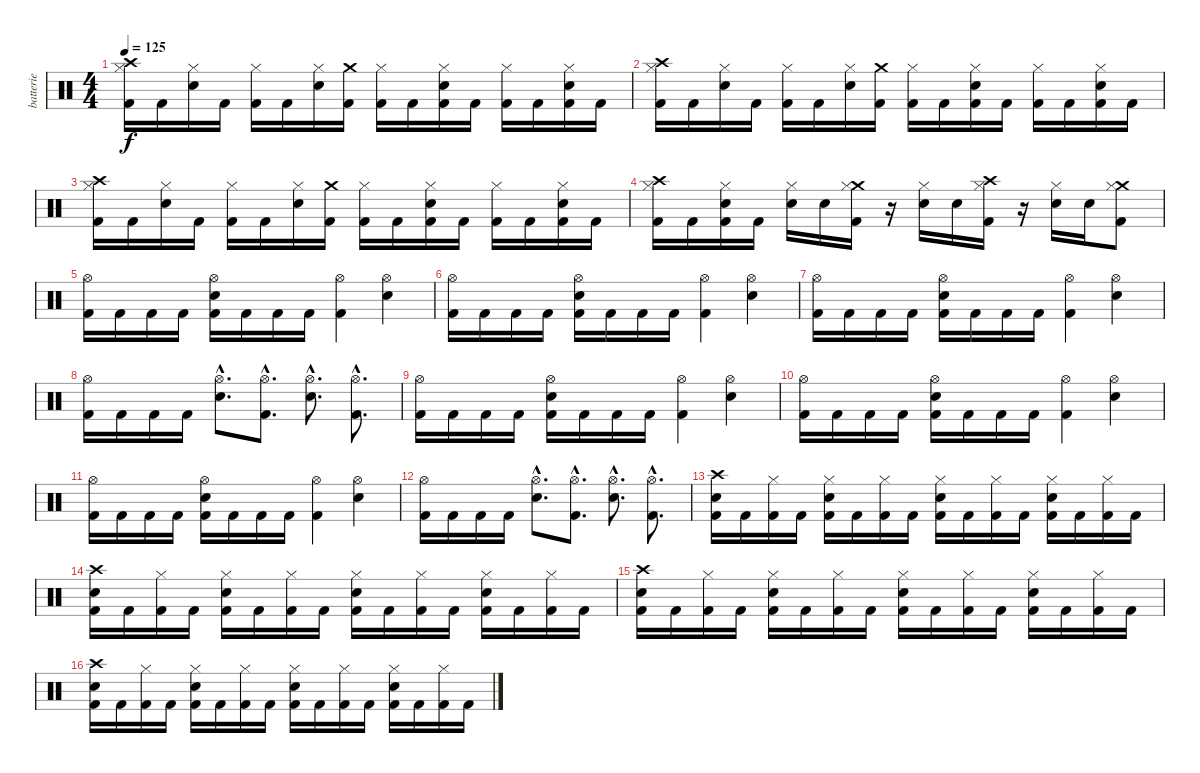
\track ("batterie" "batterie") {instrument percussion}
\staff {score}
\articulation defaults
\ts (4 4)
\tempo 125
\clef neutral
\ks c
("Crash high (hit)" "Kick (hit) 2" "Hi-Hat (closed)").16{dy f} "Kick (hit) 2".16 ("Electric Snare (hit)" "Hi-Hat (closed)").16 "Kick (hit) 2".16 ("Kick (hit) 2" "Hi-Hat (closed)").16 "Kick (hit) 2".16 ("Electric Snare (hit)" "Hi-Hat (closed)").16 ("Crash medium (hit)" "Kick (hit) 2").16 ("Kick (hit) 2" "Hi-Hat (closed)").16 "Kick (hit) 2".16 ("Electric Snare (hit)" "Kick (hit) 2" "Hi-Hat (closed)").16 "Kick (hit) 2".16 ("Kick (hit) 2" "Hi-Hat (closed)").16 "Kick (hit) 2".16 ("Electric Snare (hit)" "Kick (hit) 2" "Hi-Hat (closed)").16 "Kick (hit) 2".16 |
("Crash high (hit)" "Kick (hit) 2" "Hi-Hat (closed)").16 "Kick (hit) 2".16 ("Electric Snare (hit)" "Hi-Hat (closed)").16 "Kick (hit) 2".16 ("Kick (hit) 2" "Hi-Hat (closed)").16 "Kick (hit) 2".16 ("Electric Snare (hit)" "Hi-Hat (closed)").16 ("Crash medium (hit)" "Kick (hit) 2").16 ("Kick (hit) 2" "Hi-Hat (closed)").16 "Kick (hit) 2".16 ("Electric Snare (hit)" "Kick (hit) 2" "Hi-Hat (closed)").16 "Kick (hit) 2".16 ("Kick (hit) 2" "Hi-Hat (closed)").16 "Kick (hit) 2".16 ("Electric Snare (hit)" "Kick (hit) 2" "Hi-Hat (closed)").16 "Kick (hit) 2".16 |
("Crash high (hit)" "Kick (hit) 2" "Hi-Hat (closed)").16 "Kick (hit) 2".16 ("Electric Snare (hit)" "Hi-Hat (closed)").16 "Kick (hit) 2".16 ("Kick (hit) 2" "Hi-Hat (closed)").16 "Kick (hit) 2".16 ("Electric Snare (hit)" "Hi-Hat (closed)").16 ("Crash medium (hit)" "Kick (hit) 2").16 ("Kick (hit) 2" "Hi-Hat (closed)").16 "Kick (hit) 2".16 ("Electric Snare (hit)" "Kick (hit) 2" "Hi-Hat (closed)").16 "Kick (hit) 2".16 ("Kick (hit) 2" "Hi-Hat (closed)").16 "Kick (hit) 2".16 ("Electric Snare (hit)" "Kick (hit) 2" "Hi-Hat (closed)").16 "Kick (hit) 2".16 |
("Crash high (hit)" "Kick (hit) 2" "Hi-Hat (closed)").16 "Kick (hit) 2".16 ("Electric Snare (hit)" "Kick (hit) 2" "Hi-Hat (closed)").16 "Kick (hit) 2".16 ("Electric Snare (hit)" "Hi-Hat (closed)").16 "Electric Snare (hit)".16 ("Crash medium (hit)" "Kick (hit) 2" "Hi-Hat (closed)").16 r.16 ("Electric Snare (hit)" "Hi-Hat (closed)").16 "Electric Snare (hit)".16 ("Crash high (hit)" "Kick (hit) 2" "Hi-Hat (closed)").16 r.16 ("Electric Snare (hit)" "Hi-Hat (closed)").16 "Electric Snare (hit)".16 ("Crash medium (hit)" "Kick (hit) 2" "Hi-Hat (closed)").8 |
("Kick (hit) 2" "Hi-Hat (open)").16 "Kick (hit) 2".16 "Kick (hit) 2".16 "Kick (hit) 2".16 ("Electric Snare (hit)" "Kick (hit) 2" "Hi-Hat (open)").16 "Kick (hit) 2".16 "Kick (hit) 2".16 "Kick (hit) 2".16 ("Kick (hit) 2" "Hi-Hat (open)").4 ("Electric Snare (hit)" "Hi-Hat (open)").4 |
("Kick (hit) 2" "Hi-Hat (open)").16 "Kick (hit) 2".16 "Kick (hit) 2".16 "Kick (hit) 2".16 ("Electric Snare (hit)" "Kick (hit) 2" "Hi-Hat (open)").16 "Kick (hit) 2".16 "Kick (hit) 2".16 "Kick (hit) 2".16 ("Kick (hit) 2" "Hi-Hat (open)").4 ("Electric Snare (hit)" "Hi-Hat (open)").4 |
("Kick (hit) 2" "Hi-Hat (open)").16 "Kick (hit) 2".16 "Kick (hit) 2".16 "Kick (hit) 2".16 ("Electric Snare (hit)" "Kick (hit) 2" "Hi-Hat (open)").16 "Kick (hit) 2".16 "Kick (hit) 2".16 "Kick (hit) 2".16 ("Kick (hit) 2" "Hi-Hat (open)").4 ("Electric Snare (hit)" "Hi-Hat (open)").4 |
("Kick (hit) 2" "Hi-Hat (open)").16 "Kick (hit) 2".16 "Kick (hit) 2".16 "Kick (hit) 2".16 ("Electric Snare (hit)"{hac} "Hi-Hat (open)"{hac}).8{d} ("Kick (hit) 2"{hac} "Hi-Hat (open)"{hac}).8{d} ("Electric Snare (hit)"{hac} "Hi-Hat (open)"{hac}).8{d} ("Kick (hit) 2"{hac} "Hi-Hat (open)"{hac}).8{d} |
("Kick (hit) 2" "Hi-Hat (open)").16 "Kick (hit) 2".16 "Kick (hit) 2".16 "Kick (hit) 2".16 ("Electric Snare (hit)" "Kick (hit) 2" "Hi-Hat (open)").16 "Kick (hit) 2".16 "Kick (hit) 2".16 "Kick (hit) 2".16 ("Kick (hit) 2" "Hi-Hat (open)").4 ("Electric Snare (hit)" "Hi-Hat (open)").4 |
("Kick (hit) 2" "Hi-Hat (open)").16 "Kick (hit) 2".16 "Kick (hit) 2".16 "Kick (hit) 2".16 ("Electric Snare (hit)" "Kick (hit) 2" "Hi-Hat (open)").16 "Kick (hit) 2".16 "Kick (hit) 2".16 "Kick (hit) 2".16 ("Kick (hit) 2" "Hi-Hat (open)").4 ("Electric Snare (hit)" "Hi-Hat (open)").4 |
("Kick (hit) 2" "Hi-Hat (open)").16 "Kick (hit) 2".16 "Kick (hit) 2".16 "Kick (hit) 2".16 ("Electric Snare (hit)" "Kick (hit) 2" "Hi-Hat (open)").16 "Kick (hit) 2".16 "Kick (hit) 2".16 "Kick (hit) 2".16 ("Kick (hit) 2" "Hi-Hat (open)").4 ("Electric Snare (hit)" "Hi-Hat (open)").4 |
("Kick (hit) 2" "Hi-Hat (open)").16 "Kick (hit) 2".16 "Kick (hit) 2".16 "Kick (hit) 2".16 ("Electric Snare (hit)"{hac} "Hi-Hat (open)"{hac}).8{d} ("Kick (hit) 2"{hac} "Hi-Hat (open)"{hac}).8{d} ("Electric Snare (hit)"{hac} "Hi-Hat (open)"{hac}).8{d} ("Kick (hit) 2"{hac} "Hi-Hat (open)"{hac}).8{d} |
("Crash high (hit)" "Electric Snare (hit)" "Kick (hit) 2").16 "Kick (hit) 2".16 ("Kick (hit) 2" "Hi-Hat (closed)").16 "Kick (hit) 2".16 ("Electric Snare (hit)" "Kick (hit) 2" "Hi-Hat (closed)").16 "Kick (hit) 2".16 ("Kick (hit) 2" "Hi-Hat (closed)").16 "Kick (hit) 2".16 ("Electric Snare (hit)" "Kick (hit) 2" "Hi-Hat (closed)").16 "Kick (hit) 2".16 ("Kick (hit) 2" "Hi-Hat (closed)").16 "Kick (hit) 2".16 ("Electric Snare (hit)" "Kick (hit) 2" "Hi-Hat (closed)").16 "Kick (hit) 2".16 ("Kick (hit) 2" "Hi-Hat (closed)").16 "Kick (hit) 2".16 |
("Crash high (hit)" "Electric Snare (hit)" "Kick (hit) 2").16 "Kick (hit) 2".16 ("Kick (hit) 2" "Hi-Hat (closed)").16 "Kick (hit) 2".16 ("Electric Snare (hit)" "Kick (hit) 2" "Hi-Hat (closed)").16 "Kick (hit) 2".16 ("Kick (hit) 2" "Hi-Hat (closed)").16 "Kick (hit) 2".16 ("Electric Snare (hit)" "Kick (hit) 2" "Hi-Hat (closed)").16 "Kick (hit) 2".16 ("Kick (hit) 2" "Hi-Hat (closed)").16 "Kick (hit) 2".16 ("Electric Snare (hit)" "Kick (hit) 2" "Hi-Hat (closed)").16 "Kick (hit) 2".16 ("Kick (hit) 2" "Hi-Hat (closed)").16 "Kick (hit) 2".16 |
("Crash high (hit)" "Electric Snare (hit)" "Kick (hit) 2").16 "Kick (hit) 2".16 ("Kick (hit) 2" "Hi-Hat (closed)").16 "Kick (hit) 2".16 ("Electric Snare (hit)" "Kick (hit) 2" "Hi-Hat (closed)").16 "Kick (hit) 2".16 ("Kick (hit) 2" "Hi-Hat (closed)").16 "Kick (hit) 2".16 ("Electric Snare (hit)" "Kick (hit) 2" "Hi-Hat (closed)").16 "Kick (hit) 2".16 ("Kick (hit) 2" "Hi-Hat (closed)").16 "Kick (hit) 2".16 ("Electric Snare (hit)" "Kick (hit) 2" "Hi-Hat (closed)").16 "Kick (hit) 2".16 ("Kick (hit) 2" "Hi-Hat (closed)").16 "Kick (hit) 2".16 |
("Crash high (hit)" "Electric Snare (hit)" "Kick (hit) 2").16 "Kick (hit) 2".16 ("Kick (hit) 2" "Hi-Hat (closed)").16 "Kick (hit) 2".16 ("Electric Snare (hit)" "Kick (hit) 2" "Hi-Hat (closed)").16 "Kick (hit) 2".16 ("Kick (hit) 2" "Hi-Hat (closed)").16 "Kick (hit) 2".16 ("Electric Snare (hit)" "Kick (hit) 2" "Hi-Hat (closed)").16 "Kick (hit) 2".16 ("Kick (hit) 2" "Hi-Hat (closed)").16 "Kick (hit) 2".16 ("Electric Snare (hit)" "Kick (hit) 2" "Hi-Hat (closed)").16 "Kick (hit) 2".16 ("Kick (hit) 2" "Hi-Hat (closed)").16 "Kick (hit) 2".16
